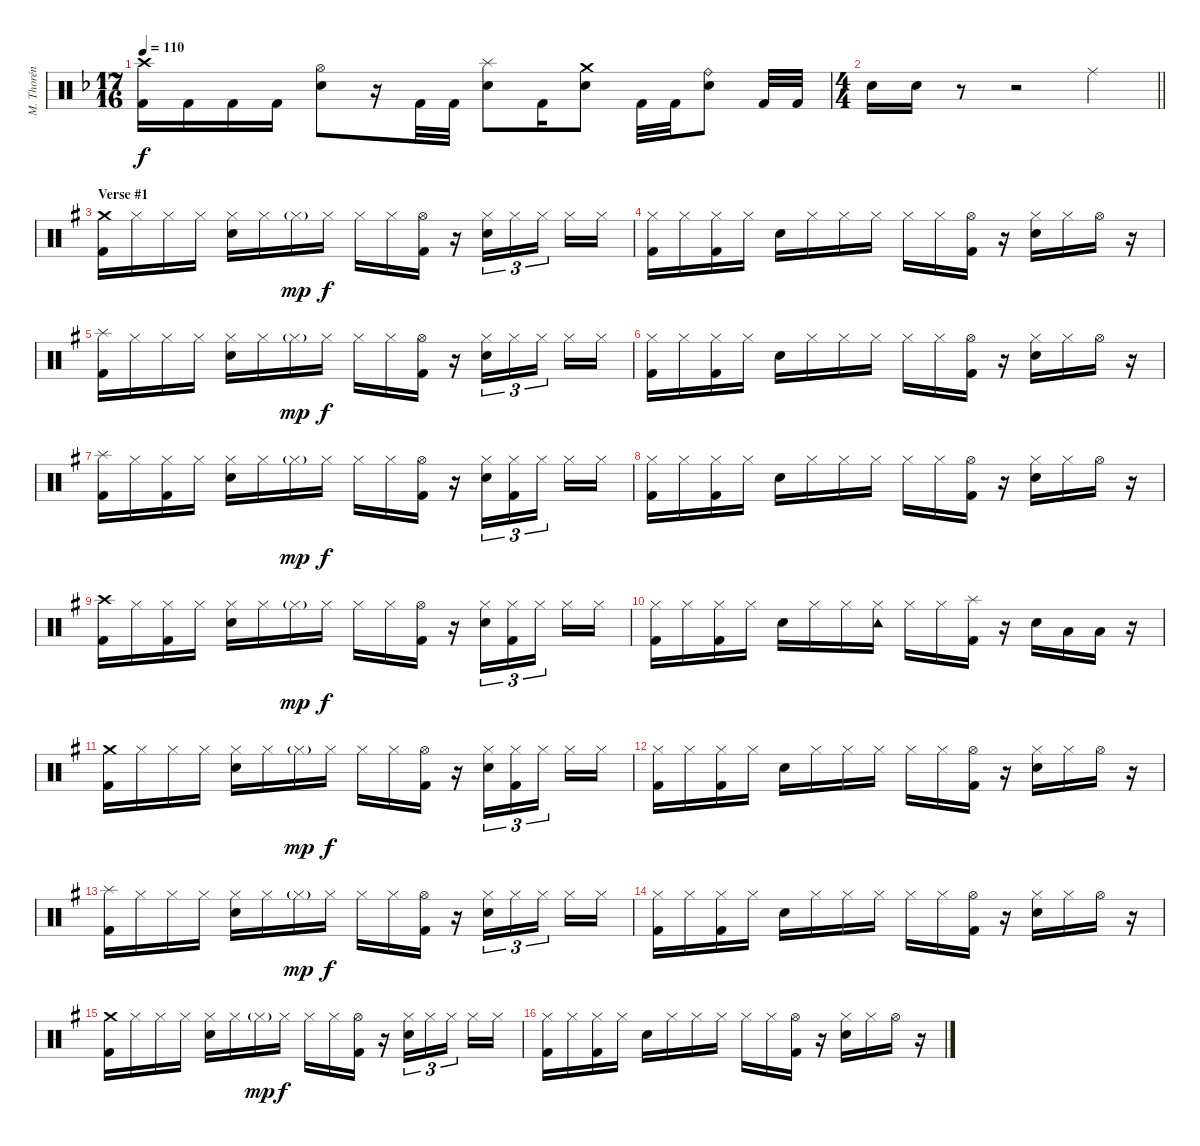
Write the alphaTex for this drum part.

\track ("M. Thorén (Drums)" "M. Thorén ") {instrument percussion}
\staff {score}
\articulation defaults
\ts (17 16)
\tempo 110
\clef neutral
\ks dminor
("Crash high (hit)" "Kick (hit) 2").16{dy f} "Kick (hit) 2".16 "Kick (hit) 2".16 "Kick (hit) 2".16 ("Hi-Hat (open)" "Electric Snare (hit)").8 r.16 "Kick (hit) 2".32 "Kick (hit) 2".32 ("Splash (hit)" "Electric Snare (hit)").8 "Kick (hit) 2".16 ("Crash medium (hit)" "Electric Snare (hit)").8 "Kick (hit) 2".32 "Kick (hit) 2".32 ("Ride (bell)" "Electric Snare (hit)").8 "Kick (hit) 2".32 "Kick (hit) 2".32 |
\ts (4 4)
\barLineRight lightlight "Electric Snare (hit)".16 "Electric Snare (hit)".16
r.8 r.2 "Ride (middle)".4 |
\section ("" "Verse #1")
\ks eminor
("Crash medium (hit)" "Kick (hit) 2").16 "Hi-Hat (closed)".16 "Hi-Hat (closed)".16 "Hi-Hat (closed)".16 ("Hi-Hat (closed)" "Electric Snare (hit)").16 "Hi-Hat (closed)".16 "Hi-Hat (closed)"{g}.16{dy mp} "Hi-Hat (closed)".16{dy f} "Hi-Hat (closed)".16 "Hi-Hat (closed)".16 ("Hi-Hat (open)" "Kick (hit) 2").16 r.16 ("Hi-Hat (closed)" "Electric Snare (hit)").16{tu (3 2)} "Hi-Hat (closed)".16{tu (3 2)} "Hi-Hat (closed)".16{tu (3 2) beam splitsecondary} "Hi-Hat (closed)".16 "Hi-Hat (closed)".16 |
("Hi-Hat (closed)" "Kick (hit) 2").16 "Hi-Hat (closed)".16 ("Hi-Hat (closed)" "Kick (hit) 2").16 "Hi-Hat (closed)".16 "Electric Snare (hit)".16 "Hi-Hat (closed)".16 "Hi-Hat (closed)".16 "Hi-Hat (closed)".16 "Hi-Hat (closed)".16 "Hi-Hat (closed)".16 ("Hi-Hat (open)" "Kick (hit) 2").16 r.16 ("Hi-Hat (closed)" "Electric Snare (hit)").16 "Hi-Hat (closed)".16 "Hi-Hat (open)".16 r.16 |
("Splash (hit)" "Kick (hit) 2").16 "Hi-Hat (closed)".16 "Hi-Hat (closed)".16 "Hi-Hat (closed)".16 ("Hi-Hat (closed)" "Electric Snare (hit)").16 "Hi-Hat (closed)".16 "Hi-Hat (closed)"{g}.16{dy mp} "Hi-Hat (closed)".16{dy f} "Hi-Hat (closed)".16 "Hi-Hat (closed)".16 ("Hi-Hat (open)" "Kick (hit) 2").16 r.16 ("Hi-Hat (closed)" "Electric Snare (hit)").16{tu (3 2)} "Hi-Hat (closed)".16{tu (3 2)} "Hi-Hat (closed)".16{tu (3 2) beam splitsecondary} "Hi-Hat (closed)".16 "Hi-Hat (closed)".16 |
("Hi-Hat (closed)" "Kick (hit) 2").16 "Hi-Hat (closed)".16 ("Hi-Hat (closed)" "Kick (hit) 2").16 "Hi-Hat (closed)".16 "Electric Snare (hit)".16 "Hi-Hat (closed)".16 "Hi-Hat (closed)".16 "Hi-Hat (closed)".16 "Hi-Hat (closed)".16 "Hi-Hat (closed)".16 ("Hi-Hat (open)" "Kick (hit) 2").16 r.16 ("Hi-Hat (closed)" "Electric Snare (hit)").16 "Hi-Hat (closed)".16 "Hi-Hat (open)".16 r.16 |
("Splash (hit)" "Kick (hit) 2").16 "Hi-Hat (closed)".16 ("Hi-Hat (closed)" "Kick (hit) 2").16 "Hi-Hat (closed)".16 ("Hi-Hat (closed)" "Electric Snare (hit)").16 "Hi-Hat (closed)".16 "Hi-Hat (closed)"{g}.16{dy mp} "Hi-Hat (closed)".16{dy f} "Hi-Hat (closed)".16 "Hi-Hat (closed)".16 ("Hi-Hat (open)" "Kick (hit) 2").16 r.16 ("Hi-Hat (closed)" "Electric Snare (hit)").16{tu (3 2)} ("Hi-Hat (closed)" "Kick (hit) 2").16{tu (3 2)} "Hi-Hat (closed)".16{tu (3 2) beam splitsecondary} "Hi-Hat (closed)".16 "Hi-Hat (closed)".16 |
("Hi-Hat (closed)" "Kick (hit) 2").16 "Hi-Hat (closed)".16 ("Hi-Hat (closed)" "Kick (hit) 2").16 "Hi-Hat (closed)".16 "Electric Snare (hit)".16 "Hi-Hat (closed)".16 "Hi-Hat (closed)".16 "Hi-Hat (closed)".16 "Hi-Hat (closed)".16 "Hi-Hat (closed)".16 ("Hi-Hat (open)" "Kick (hit) 2").16 r.16 ("Hi-Hat (closed)" "Electric Snare (hit)").16 "Hi-Hat (closed)".16 "Hi-Hat (open)".16 r.16 |
("Crash high (hit)" "Kick (hit) 2").16 "Hi-Hat (closed)".16 ("Hi-Hat (closed)" "Kick (hit) 2").16 "Hi-Hat (closed)".16 ("Hi-Hat (closed)" "Electric Snare (hit)").16 "Hi-Hat (closed)".16 "Hi-Hat (closed)"{g}.16{dy mp} "Hi-Hat (closed)".16{dy f} "Hi-Hat (closed)".16 "Hi-Hat (closed)".16 ("Hi-Hat (open)" "Kick (hit) 2").16 r.16 ("Hi-Hat (closed)" "Electric Snare (hit)").16{tu (3 2)} ("Hi-Hat (closed)" "Kick (hit) 2").16{tu (3 2)} "Hi-Hat (closed)".16{tu (3 2) beam splitsecondary} "Hi-Hat (closed)".16 "Hi-Hat (closed)".16 |
("Hi-Hat (closed)" "Kick (hit) 2").16 "Hi-Hat (closed)".16 ("Hi-Hat (closed)" "Kick (hit) 2").16 "Hi-Hat (closed)".16 "Electric Snare (hit)".16 "Hi-Hat (closed)".16 "Hi-Hat (closed)".16 ("Tambourine (hit)" "Hi-Hat (closed)").16 "Hi-Hat (closed)".16 "Hi-Hat (closed)".16 ("Splash (hit)" "Kick (hit) 2").16 r.16 "Electric Snare (hit)".16 "Low Tom (hit)".16 "Low Tom (hit)".16 r.16 |
("Crash medium (hit)" "Kick (hit) 2").16 "Hi-Hat (closed)".16 "Hi-Hat (closed)".16 "Hi-Hat (closed)".16 ("Hi-Hat (closed)" "Electric Snare (hit)").16 "Hi-Hat (closed)".16 "Hi-Hat (closed)"{g}.16{dy mp} "Hi-Hat (closed)".16{dy f} "Hi-Hat (closed)".16 "Hi-Hat (closed)".16 ("Hi-Hat (open)" "Kick (hit) 2").16 r.16 ("Hi-Hat (closed)" "Electric Snare (hit)").16{tu (3 2)} ("Hi-Hat (closed)" "Kick (hit) 2").16{tu (3 2)} "Hi-Hat (closed)".16{tu (3 2) beam splitsecondary} "Hi-Hat (closed)".16 "Hi-Hat (closed)".16 |
("Hi-Hat (closed)" "Kick (hit) 2").16 "Hi-Hat (closed)".16 ("Hi-Hat (closed)" "Kick (hit) 2").16 "Hi-Hat (closed)".16 "Electric Snare (hit)".16 "Hi-Hat (closed)".16 "Hi-Hat (closed)".16 "Hi-Hat (closed)".16 "Hi-Hat (closed)".16 "Hi-Hat (closed)".16 ("Hi-Hat (open)" "Kick (hit) 2").16 r.16 ("Hi-Hat (closed)" "Electric Snare (hit)").16 "Hi-Hat (closed)".16 "Hi-Hat (open)".16 r.16 |
("Splash (hit)" "Kick (hit) 2").16 "Hi-Hat (closed)".16 "Hi-Hat (closed)".16 "Hi-Hat (closed)".16 ("Hi-Hat (closed)" "Electric Snare (hit)").16 "Hi-Hat (closed)".16 "Hi-Hat (closed)"{g}.16{dy mp} "Hi-Hat (closed)".16{dy f} "Hi-Hat (closed)".16 "Hi-Hat (closed)".16 ("Hi-Hat (open)" "Kick (hit) 2").16 r.16 ("Hi-Hat (closed)" "Electric Snare (hit)").16{tu (3 2)} "Hi-Hat (closed)".16{tu (3 2)} "Hi-Hat (closed)".16{tu (3 2) beam splitsecondary} "Hi-Hat (closed)".16 "Hi-Hat (closed)".16 |
("Hi-Hat (closed)" "Kick (hit) 2").16 "Hi-Hat (closed)".16 ("Hi-Hat (closed)" "Kick (hit) 2").16 "Hi-Hat (closed)".16 "Electric Snare (hit)".16 "Hi-Hat (closed)".16 "Hi-Hat (closed)".16 "Hi-Hat (closed)".16 "Hi-Hat (closed)".16 "Hi-Hat (closed)".16 ("Hi-Hat (open)" "Kick (hit) 2").16 r.16 ("Hi-Hat (closed)" "Electric Snare (hit)").16 "Hi-Hat (closed)".16 "Hi-Hat (open)".16 r.16 |
("Crash medium (hit)" "Kick (hit) 2").16 "Hi-Hat (closed)".16 "Hi-Hat (closed)".16 "Hi-Hat (closed)".16 ("Hi-Hat (closed)" "Electric Snare (hit)").16 "Hi-Hat (closed)".16 "Hi-Hat (closed)"{g}.16{dy mp} "Hi-Hat (closed)".16{dy f} "Hi-Hat (closed)".16 "Hi-Hat (closed)".16 ("Hi-Hat (open)" "Kick (hit) 2").16 r.16 ("Hi-Hat (closed)" "Electric Snare (hit)").16{tu (3 2)} "Hi-Hat (closed)".16{tu (3 2)} "Hi-Hat (closed)".16{tu (3 2) beam splitsecondary} "Hi-Hat (closed)".16 "Hi-Hat (closed)".16 |
("Hi-Hat (closed)" "Kick (hit) 2").16 "Hi-Hat (closed)".16 ("Hi-Hat (closed)" "Kick (hit) 2").16 "Hi-Hat (closed)".16 "Electric Snare (hit)".16 "Hi-Hat (closed)".16 "Hi-Hat (closed)".16 "Hi-Hat (closed)".16 "Hi-Hat (closed)".16 "Hi-Hat (closed)".16 ("Hi-Hat (open)" "Kick (hit) 2").16 r.16 ("Hi-Hat (closed)" "Electric Snare (hit)").16 "Hi-Hat (closed)".16 "Hi-Hat (open)".16 r.16
